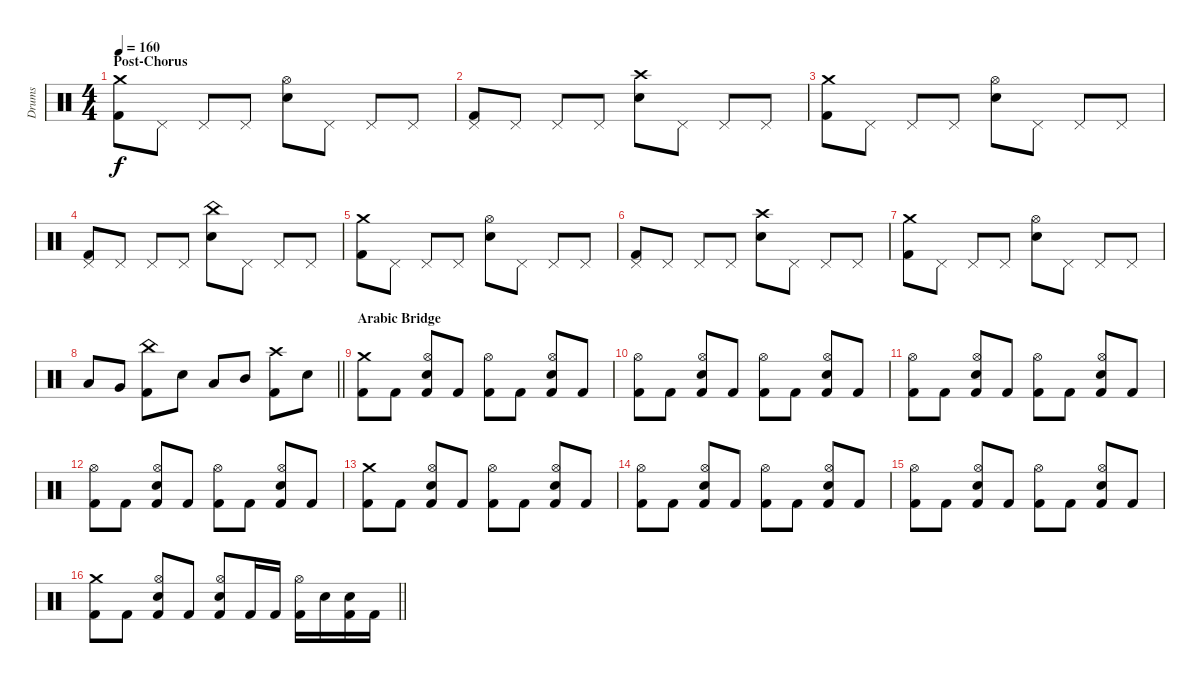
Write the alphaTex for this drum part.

\track ("Drums" "Drums") {instrument percussion}
\staff {score}
\articulation defaults
\ts (4 4)
\section ("" "Post-Chorus")
\tempo 160
\clef neutral
\ks aminor
("Crash medium (hit)" "Kick (hit) 2").8{dy f} "Pedal Hi-Hat (hit)".8 "Pedal Hi-Hat (hit)".8 "Pedal Hi-Hat (hit)".8 ("Hi-Hat (open)" "Electric Snare (hit)").8 "Pedal Hi-Hat (hit)".8 "Pedal Hi-Hat (hit)".8 "Pedal Hi-Hat (hit)".8 |
("Pedal Hi-Hat (hit)" "Kick (hit) 2").8 "Pedal Hi-Hat (hit)".8 "Pedal Hi-Hat (hit)".8 "Pedal Hi-Hat (hit)".8 ("Crash high (hit)" "Electric Snare (hit)").8 "Pedal Hi-Hat (hit)".8 "Pedal Hi-Hat (hit)".8 "Pedal Hi-Hat (hit)".8 |
("Crash medium (hit)" "Kick (hit) 2").8 "Pedal Hi-Hat (hit)".8 "Pedal Hi-Hat (hit)".8 "Pedal Hi-Hat (hit)".8 ("Hi-Hat (open)" "Electric Snare (hit)").8 "Pedal Hi-Hat (hit)".8 "Pedal Hi-Hat (hit)".8 "Pedal Hi-Hat (hit)".8 |
("Pedal Hi-Hat (hit)" "Kick (hit) 2").8 "Pedal Hi-Hat (hit)".8 "Pedal Hi-Hat (hit)".8 "Pedal Hi-Hat (hit)".8 ("China (hit)" "Electric Snare (hit)").8 "Pedal Hi-Hat (hit)".8 "Pedal Hi-Hat (hit)".8 "Pedal Hi-Hat (hit)".8 |
("Crash medium (hit)" "Kick (hit) 2").8 "Pedal Hi-Hat (hit)".8 "Pedal Hi-Hat (hit)".8 "Pedal Hi-Hat (hit)".8 ("Hi-Hat (open)" "Electric Snare (hit)").8 "Pedal Hi-Hat (hit)".8 "Pedal Hi-Hat (hit)".8 "Pedal Hi-Hat (hit)".8 |
("Pedal Hi-Hat (hit)" "Kick (hit) 2").8 "Pedal Hi-Hat (hit)".8 "Pedal Hi-Hat (hit)".8 "Pedal Hi-Hat (hit)".8 ("Crash high (hit)" "Electric Snare (hit)").8 "Pedal Hi-Hat (hit)".8 "Pedal Hi-Hat (hit)".8 "Pedal Hi-Hat (hit)".8 |
("Crash medium (hit)" "Kick (hit) 2").8 "Pedal Hi-Hat (hit)".8 "Pedal Hi-Hat (hit)".8 "Pedal Hi-Hat (hit)".8 ("Hi-Hat (open)" "Electric Snare (hit)").8 "Pedal Hi-Hat (hit)".8 "Pedal Hi-Hat (hit)".8 "Pedal Hi-Hat (hit)".8 |
\barLineRight lightlight "Low Floor Tom (hit)".8 "Very Low Tom (hit)".8
("China (hit)" "Kick (hit) 2").8 "Electric Snare (hit)".8 "Low Tom (hit)".8 "Mid Tom (hit)".8 ("Crash high (hit)" "Kick (hit) 2").8 "Electric Snare (hit)".8 |
\section ("" "Arabic Bridge")
("Crash medium (hit)" "Kick (hit) 2").8 "Kick (hit) 2".8 ("Hi-Hat (open)" "Electric Snare (hit)" "Kick (hit) 2").8 "Kick (hit) 2".8 ("Hi-Hat (open)" "Kick (hit) 2").8 "Kick (hit) 2".8 ("Hi-Hat (open)" "Electric Snare (hit)" "Kick (hit) 2").8 "Kick (hit) 2".8 |
("Hi-Hat (open)" "Kick (hit) 2").8 "Kick (hit) 2".8 ("Hi-Hat (open)" "Electric Snare (hit)" "Kick (hit) 2").8 "Kick (hit) 2".8 ("Hi-Hat (open)" "Kick (hit) 2").8 "Kick (hit) 2".8 ("Hi-Hat (open)" "Electric Snare (hit)" "Kick (hit) 2").8 "Kick (hit) 2".8 |
("Hi-Hat (open)" "Kick (hit) 2").8 "Kick (hit) 2".8 ("Hi-Hat (open)" "Electric Snare (hit)" "Kick (hit) 2").8 "Kick (hit) 2".8 ("Hi-Hat (open)" "Kick (hit) 2").8 "Kick (hit) 2".8 ("Hi-Hat (open)" "Electric Snare (hit)" "Kick (hit) 2").8 "Kick (hit) 2".8 |
("Hi-Hat (open)" "Kick (hit) 2").8 "Kick (hit) 2".8 ("Hi-Hat (open)" "Electric Snare (hit)" "Kick (hit) 2").8 "Kick (hit) 2".8 ("Hi-Hat (open)" "Kick (hit) 2").8 "Kick (hit) 2".8 ("Hi-Hat (open)" "Electric Snare (hit)" "Kick (hit) 2").8 "Kick (hit) 2".8 |
("Crash medium (hit)" "Kick (hit) 2").8 "Kick (hit) 2".8 ("Hi-Hat (open)" "Electric Snare (hit)" "Kick (hit) 2").8 "Kick (hit) 2".8 ("Hi-Hat (open)" "Kick (hit) 2").8 "Kick (hit) 2".8 ("Hi-Hat (open)" "Electric Snare (hit)" "Kick (hit) 2").8 "Kick (hit) 2".8 |
("Hi-Hat (open)" "Kick (hit) 2").8 "Kick (hit) 2".8 ("Hi-Hat (open)" "Electric Snare (hit)" "Kick (hit) 2").8 "Kick (hit) 2".8 ("Hi-Hat (open)" "Kick (hit) 2").8 "Kick (hit) 2".8 ("Hi-Hat (open)" "Electric Snare (hit)" "Kick (hit) 2").8 "Kick (hit) 2".8 |
("Hi-Hat (open)" "Kick (hit) 2").8 "Kick (hit) 2".8 ("Hi-Hat (open)" "Electric Snare (hit)" "Kick (hit) 2").8 "Kick (hit) 2".8 ("Hi-Hat (open)" "Kick (hit) 2").8 "Kick (hit) 2".8 ("Hi-Hat (open)" "Electric Snare (hit)" "Kick (hit) 2").8 "Kick (hit) 2".8 |
\barLineRight lightlight
("Crash medium (hit)" "Kick (hit) 2").8 "Kick (hit) 2".8 ("Hi-Hat (open)" "Electric Snare (hit)" "Kick (hit) 2").8 "Kick (hit) 2".8 ("Hi-Hat (open)" "Electric Snare (hit)" "Kick (hit) 2").8 "Kick (hit) 2".16 "Kick (hit) 2".16 ("Hi-Hat (open)" "Kick (hit) 2").16 "Electric Snare (hit)".16 ("Electric Snare (hit)" "Kick (hit) 2").16 "Kick (hit) 2".16
